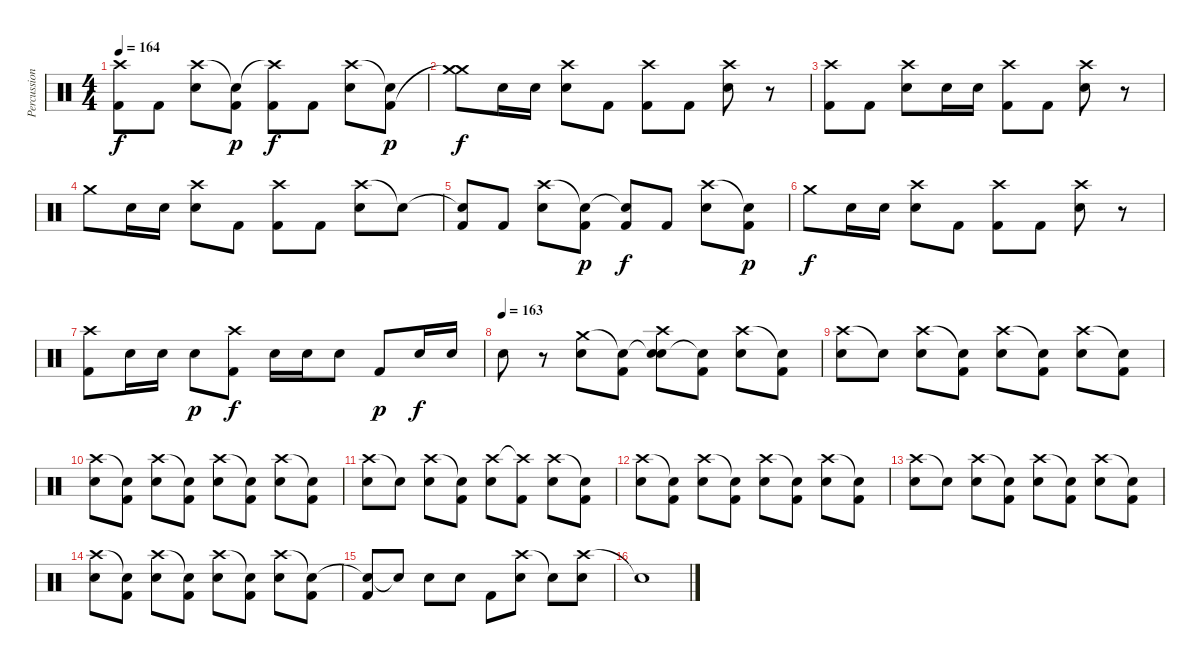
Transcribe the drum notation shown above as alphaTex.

\track ("Percussion" "Percussion") {instrument percussion bank 177}
\staff {score}
\articulation defaults
\ts (4 4)
\tempo 164
\clef neutral
\ks c
("Crash high (hit)"{t} "Kick (hit) 2").8{dy f} "Kick (hit) 2".8 ("Crash high (hit)" "Snare (hit) 2").8 ("Snare (hit)"{t} "Kick (hit) 2").8{dy p} ("Crash high (hit)"{t} "Kick (hit) 2").8{dy f} "Kick (hit) 2".8 ("Crash high (hit)" "Snare (hit) 2").8 ("Snare (hit)"{t} "Kick (hit) 2").8{dy p} |
("Crash medium (hit)" "Crash medium (hit)"{t}).8{dy f} "Snare (hit) 2".16 "Snare (hit) 2".16 ("Crash high (hit)" "Snare (hit) 2").8 "Kick (hit) 2".8 ("Crash high (hit)" "Kick (hit) 2").8 "Kick (hit) 2".8 ("Crash high (hit)" "Snare (hit) 2").8 r.8 |
("Crash high (hit)" "Kick (hit) 2").8 "Kick (hit) 2".8 ("Crash high (hit)" "Snare (hit) 2").8 "Snare (hit) 2".16 "Snare (hit) 2".16 ("Crash high (hit)" "Kick (hit) 2").8 "Kick (hit) 2".8 ("Crash high (hit)" "Snare (hit) 2").8 r.8 |
"Crash medium (hit)".8 "Snare (hit) 2".16 "Snare (hit) 2".16 ("Crash high (hit)" "Snare (hit) 2").8 "Kick (hit) 2".8 ("Crash high (hit)" "Kick (hit) 2").8 "Kick (hit) 2".8 ("Crash high (hit)" "Snare (hit) 2").8 "Snare (hit)"{t}.8 |
("Snare (hit)"{t} "Kick (hit) 2").8 "Kick (hit) 2".8 ("Crash high (hit)" "Snare (hit) 2").8 ("Snare (hit)"{t} "Kick (hit) 2").8{dy p} ("Snare (hit)"{t} "Kick (hit) 2").8{dy f} "Kick (hit) 2".8 ("Crash high (hit)" "Snare (hit) 2").8 ("Snare (hit)"{t} "Kick (hit) 2").8{dy p} |
"Crash medium (hit)".8{dy f} "Snare (hit) 2".16 "Snare (hit) 2".16 ("Crash high (hit)" "Snare (hit) 2").8 "Kick (hit) 2".8 ("Crash high (hit)" "Kick (hit) 2").8 "Kick (hit) 2".8 ("Crash high (hit)" "Snare (hit) 2").8 r.8 |
("Crash high (hit)" "Kick (hit) 2").8 "Snare (hit) 2".16 "Snare (hit) 2".16 "Snare (hit) 2".8{dy p} ("Crash high (hit)" "Kick (hit) 2").8{dy f} "Snare (hit) 2".16 "Snare (hit) 2".16 "Snare (hit) 2".8 "Kick (hit) 2".8{dy p} "Snare (hit) 2".16{dy f} "Snare (hit) 2".16 |
\tempo (163)
"Snare (hit) 2".8 r.8 ("Crash medium (hit)" "Snare (hit) 2").8 ("Snare (hit)"{t} "Kick (hit) 2").8 ("Snare (hit)"{t} "Crash high (hit)" "Snare (hit) 2").8 ("Snare (hit)"{t} "Kick (hit) 2").8 ("Crash high (hit)" "Snare (hit) 2").8 ("Snare (hit)"{t} "Kick (hit) 2").8 |
("Crash high (hit)" "Snare (hit) 2").8 "Snare (hit)"{t}.8 ("Crash high (hit)" "Snare (hit) 2").8 ("Snare (hit)"{t} "Kick (hit) 2").8 ("Crash high (hit)" "Snare (hit) 2").8 ("Snare (hit)"{t} "Kick (hit) 2").8 ("Crash high (hit)" "Snare (hit) 2").8 ("Snare (hit)"{t} "Kick (hit) 2").8 |
("Crash high (hit)" "Snare (hit) 2").8 ("Snare (hit)"{t} "Kick (hit) 2").8 ("Crash high (hit)" "Snare (hit) 2").8 ("Snare (hit)"{t} "Kick (hit) 2").8 ("Crash high (hit)" "Snare (hit) 2").8 ("Snare (hit)"{t} "Kick (hit) 2").8 ("Crash high (hit)" "Snare (hit) 2").8 ("Snare (hit)"{t} "Kick (hit) 2").8 |
("Crash high (hit)" "Snare (hit) 2").8 "Snare (hit)"{t}.8 ("Crash high (hit)" "Snare (hit) 2").8 ("Snare (hit)"{t} "Kick (hit) 2").8 ("Crash high (hit)" "Snare (hit) 2").8 ("Crash high (hit)"{t} "Kick (hit) 2").8 ("Crash high (hit)" "Snare (hit) 2").8 ("Snare (hit)"{t} "Kick (hit) 2").8 |
("Crash high (hit)" "Snare (hit) 2").8 ("Snare (hit)"{t} "Kick (hit) 2").8 ("Crash high (hit)" "Snare (hit) 2").8 ("Snare (hit)"{t} "Kick (hit) 2").8 ("Crash high (hit)" "Snare (hit) 2").8 ("Snare (hit)"{t} "Kick (hit) 2").8 ("Crash high (hit)" "Snare (hit) 2").8 ("Snare (hit)"{t} "Kick (hit) 2").8 |
("Crash high (hit)" "Snare (hit) 2").8 "Snare (hit)"{t}.8 ("Crash high (hit)" "Snare (hit) 2").8 ("Snare (hit)"{t} "Kick (hit) 2").8 ("Crash high (hit)" "Snare (hit) 2").8 ("Snare (hit)"{t} "Kick (hit) 2").8 ("Crash high (hit)" "Snare (hit) 2").8 ("Snare (hit)"{t} "Kick (hit) 2").8 |
("Crash high (hit)" "Snare (hit) 2").8 ("Snare (hit)"{t} "Kick (hit) 2").8 ("Crash high (hit)" "Snare (hit) 2").8 ("Snare (hit)"{t} "Kick (hit) 2").8 ("Crash high (hit)" "Snare (hit) 2").8 ("Snare (hit)"{t} "Kick (hit) 2").8 ("Crash high (hit)" "Snare (hit) 2").8 ("Snare (hit)"{t} "Kick (hit) 2").8 |
("Snare (hit)"{t} "Kick (hit) 2").8 "Snare (hit)"{t}.8 "Snare (hit) 2".8 "Snare (hit) 2".8 "Kick (hit) 2".8 ("Crash high (hit)" "Snare (hit) 2").8 "Snare (hit)"{t}.8 ("Crash high (hit)" "Snare (hit) 2").8 |
"Snare (hit)"{t}.1
